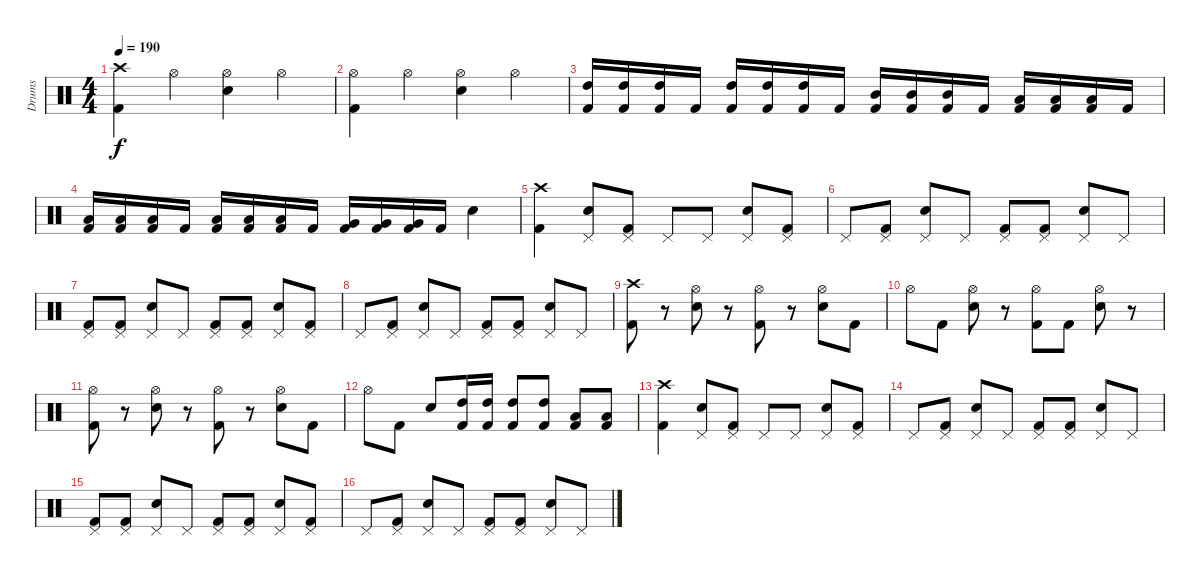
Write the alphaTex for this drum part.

\track ("Drums" "Drums") {instrument percussion}
\staff {score}
\articulation defaults
\ts (4 4)
\tempo 190
\clef neutral
\ks c
("Crash high (hit)" "Kick (hit) 2").4{dy f} "Hi-Hat (open)".4 ("Hi-Hat (open)" "Snare (hit) 2").4 "Hi-Hat (open)".4 |
("Hi-Hat (open)" "Kick (hit) 2").4 "Hi-Hat (open)".4 ("Hi-Hat (open)" "Snare (hit) 2").4 "Hi-Hat (open)".4 |
("High Tom (hit)" "Kick (hit) 2").16 ("High Tom (hit)" "Kick (hit) 2").16 ("High Tom (hit)" "Kick (hit) 2").16 "Kick (hit) 2".16 ("High Tom (hit)" "Kick (hit) 2").16 ("High Tom (hit)" "Kick (hit) 2").16 ("High Tom (hit)" "Kick (hit) 2").16 "Kick (hit) 2".16 ("Mid Tom (hit)" "Kick (hit) 2").16 ("Mid Tom (hit)" "Kick (hit) 2").16 ("Mid Tom (hit)" "Kick (hit) 2").16 "Kick (hit) 2".16 ("Low Tom (hit)" "Kick (hit) 2").16 ("Low Tom (hit)" "Kick (hit) 2").16 ("Low Tom (hit)" "Kick (hit) 2").16 "Kick (hit) 2".16 |
("Low Tom (hit)" "Kick (hit) 2").16 ("Low Tom (hit)" "Kick (hit) 2").16 ("Low Tom (hit)" "Kick (hit) 2").16 "Kick (hit) 2".16 ("Low Tom (hit)" "Kick (hit) 2").16 ("Low Tom (hit)" "Kick (hit) 2").16 ("Low Tom (hit)" "Kick (hit) 2").16 "Kick (hit) 2".16 ("Very Low Tom (hit)" "Kick (hit) 2").16 ("Very Low Tom (hit)" "Kick (hit) 2").16 ("Very Low Tom (hit)" "Kick (hit) 2").16 "Kick (hit) 2".16 "Snare (hit) 2".4 |
("Crash high (hit)" "Kick (hit) 2").4 ("Pedal Hi-Hat (hit)" "Snare (hit) 2").8 ("Pedal Hi-Hat (hit)" "Kick (hit) 2").8 "Pedal Hi-Hat (hit)".8 "Pedal Hi-Hat (hit)".8 ("Pedal Hi-Hat (hit)" "Snare (hit) 2").8 ("Pedal Hi-Hat (hit)" "Kick (hit) 2").8 |
"Pedal Hi-Hat (hit)".8 ("Pedal Hi-Hat (hit)" "Kick (hit) 2").8 ("Pedal Hi-Hat (hit)" "Snare (hit) 2").8 "Pedal Hi-Hat (hit)".8 ("Pedal Hi-Hat (hit)" "Kick (hit) 2").8 ("Pedal Hi-Hat (hit)" "Kick (hit) 2").8 ("Pedal Hi-Hat (hit)" "Snare (hit) 2").8 "Pedal Hi-Hat (hit)".8 |
("Pedal Hi-Hat (hit)" "Kick (hit) 2").8 ("Pedal Hi-Hat (hit)" "Kick (hit) 2").8 ("Pedal Hi-Hat (hit)" "Snare (hit) 2").8 "Pedal Hi-Hat (hit)".8 ("Pedal Hi-Hat (hit)" "Kick (hit) 2").8 ("Pedal Hi-Hat (hit)" "Kick (hit) 2").8 ("Pedal Hi-Hat (hit)" "Snare (hit) 2").8 ("Pedal Hi-Hat (hit)" "Kick (hit) 2").8 |
"Pedal Hi-Hat (hit)".8 ("Pedal Hi-Hat (hit)" "Kick (hit) 2").8 ("Pedal Hi-Hat (hit)" "Snare (hit) 2").8 "Pedal Hi-Hat (hit)".8 ("Pedal Hi-Hat (hit)" "Kick (hit) 2").8 ("Pedal Hi-Hat (hit)" "Kick (hit) 2").8 ("Pedal Hi-Hat (hit)" "Snare (hit) 2").8 "Pedal Hi-Hat (hit)".8 |
("Crash high (hit)" "Kick (hit) 2").8 r.8 ("Hi-Hat (open)" "Snare (hit) 2").8 r.8 ("Hi-Hat (open)" "Kick (hit) 2").8 r.8 ("Hi-Hat (open)" "Snare (hit) 2").8 "Kick (hit) 2".8 |
"Hi-Hat (open)".8 "Kick (hit) 2".8 ("Hi-Hat (open)" "Snare (hit) 2").8 r.8 ("Hi-Hat (open)" "Kick (hit) 2").8 "Kick (hit) 2".8 ("Hi-Hat (open)" "Snare (hit) 2").8 r.8 |
("Hi-Hat (open)" "Kick (hit) 2").8 r.8 ("Hi-Hat (open)" "Snare (hit) 2").8 r.8 ("Hi-Hat (open)" "Kick (hit) 2").8 r.8 ("Hi-Hat (open)" "Snare (hit) 2").8 "Kick (hit) 2".8 |
"Hi-Hat (open)".8 "Kick (hit) 2".8 "Snare (hit) 2".8 ("High Tom (hit)" "Kick (hit) 2").16 ("High Tom (hit)" "Kick (hit) 2").16 ("High Tom (hit)" "Kick (hit) 2").8 ("High Tom (hit)" "Kick (hit) 2").8 ("Low Tom (hit)" "Kick (hit) 2").8 ("Low Tom (hit)" "Kick (hit) 2").8 |
("Crash high (hit)" "Kick (hit) 2").4 ("Pedal Hi-Hat (hit)" "Snare (hit) 2").8 ("Pedal Hi-Hat (hit)" "Kick (hit) 2").8 "Pedal Hi-Hat (hit)".8 "Pedal Hi-Hat (hit)".8 ("Pedal Hi-Hat (hit)" "Snare (hit) 2").8 ("Pedal Hi-Hat (hit)" "Kick (hit) 2").8 |
"Pedal Hi-Hat (hit)".8 ("Pedal Hi-Hat (hit)" "Kick (hit) 2").8 ("Pedal Hi-Hat (hit)" "Snare (hit) 2").8 "Pedal Hi-Hat (hit)".8 ("Pedal Hi-Hat (hit)" "Kick (hit) 2").8 ("Pedal Hi-Hat (hit)" "Kick (hit) 2").8 ("Pedal Hi-Hat (hit)" "Snare (hit) 2").8 "Pedal Hi-Hat (hit)".8 |
("Pedal Hi-Hat (hit)" "Kick (hit) 2").8 ("Pedal Hi-Hat (hit)" "Kick (hit) 2").8 ("Pedal Hi-Hat (hit)" "Snare (hit) 2").8 "Pedal Hi-Hat (hit)".8 ("Pedal Hi-Hat (hit)" "Kick (hit) 2").8 ("Pedal Hi-Hat (hit)" "Kick (hit) 2").8 ("Pedal Hi-Hat (hit)" "Snare (hit) 2").8 ("Pedal Hi-Hat (hit)" "Kick (hit) 2").8 |
"Pedal Hi-Hat (hit)".8 ("Pedal Hi-Hat (hit)" "Kick (hit) 2").8 ("Pedal Hi-Hat (hit)" "Snare (hit) 2").8 "Pedal Hi-Hat (hit)".8 ("Pedal Hi-Hat (hit)" "Kick (hit) 2").8 ("Pedal Hi-Hat (hit)" "Kick (hit) 2").8 ("Pedal Hi-Hat (hit)" "Snare (hit) 2").8 "Pedal Hi-Hat (hit)".8
